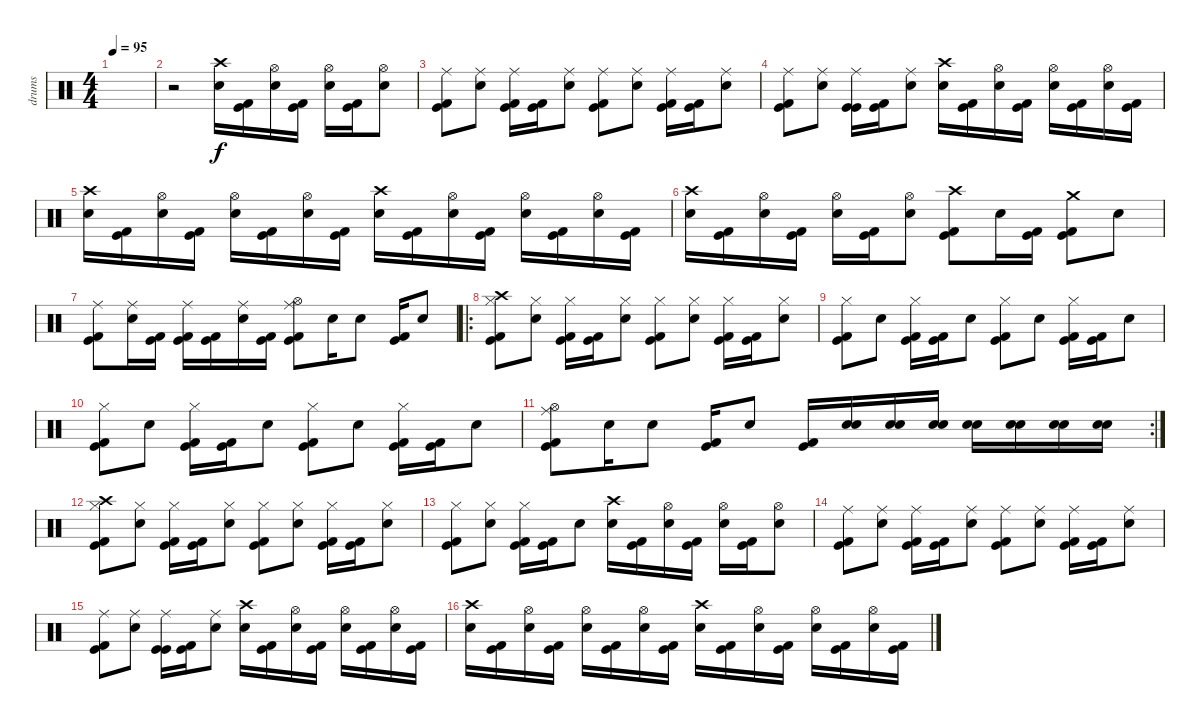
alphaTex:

\track ("drums" "drums") {instrument percussion}
\staff {score}
\articulation defaults
\ts (4 4)
\tempo 95
\clef neutral
\ks c
|
r.2 ("Crash high (hit)" "Electric Snare (hit)").16 ("Kick (hit)" "Kick (hit) 2").16 ("Hi-Hat (open)" "Electric Snare (hit)").16 ("Kick (hit)" "Kick (hit) 2").16 ("Hi-Hat (open)" "Electric Snare (hit)").16 ("Kick (hit)" "Kick (hit) 2").16 ("Hi-Hat (open)" "Electric Snare (hit)").8 |
("Ride (middle)" "Kick (hit)" "Kick (hit) 2").8 ("Ride (middle)" "Electric Snare (hit)").8 ("Ride (middle)" "Kick (hit) 2" "Kick (hit)").16 ("Kick (hit) 2" "Kick (hit)").16 ("Ride (middle)" "Electric Snare (hit)").8 ("Ride (middle)" "Kick (hit)" "Kick (hit) 2").8 ("Ride (middle)" "Electric Snare (hit)").8 ("Ride (middle)" "Kick (hit) 2" "Kick (hit)").16 ("Kick (hit) 2" "Kick (hit)").16 ("Ride (middle)" "Electric Snare (hit)").8 |
("Ride (middle)" "Kick (hit) 2" "Kick (hit)").8 ("Ride (middle)" "Electric Snare (hit)").8 ("Ride (middle)" "Kick (hit)" "Kick (hit)").16 ("Kick (hit)" "Kick (hit) 2").16 ("Ride (middle)" "Electric Snare (hit)").8 ("Crash high (hit)" "Electric Snare (hit)").16 ("Kick (hit)" "Kick (hit) 2").16 ("Hi-Hat (open)" "Electric Snare (hit)").16 ("Kick (hit)" "Kick (hit) 2").16 ("Hi-Hat (open)" "Electric Snare (hit)").16 ("Kick (hit)" "Kick (hit) 2").16 ("Hi-Hat (open)" "Electric Snare (hit)").16 ("Kick (hit)" "Kick (hit) 2").16 |
("Crash high (hit)" "Electric Snare (hit)").16 ("Kick (hit)" "Kick (hit) 2").16 ("Hi-Hat (open)" "Electric Snare (hit)").16 ("Kick (hit)" "Kick (hit) 2").16 ("Hi-Hat (open)" "Electric Snare (hit)").16 ("Kick (hit)" "Kick (hit) 2").16 ("Hi-Hat (open)" "Electric Snare (hit)").16 ("Kick (hit)" "Kick (hit) 2").16 ("Crash high (hit)" "Electric Snare (hit)").16 ("Kick (hit)" "Kick (hit) 2").16 ("Hi-Hat (open)" "Electric Snare (hit)").16 ("Kick (hit)" "Kick (hit) 2").16 ("Hi-Hat (open)" "Electric Snare (hit)").16 ("Kick (hit)" "Kick (hit) 2").16 ("Hi-Hat (open)" "Electric Snare (hit)").16 ("Kick (hit)" "Kick (hit) 2").16 |
("Crash high (hit)" "Electric Snare (hit)").16 ("Kick (hit)" "Kick (hit) 2").16 ("Hi-Hat (open)" "Electric Snare (hit)").16 ("Kick (hit)" "Kick (hit) 2").16 ("Hi-Hat (open)" "Electric Snare (hit)").16 ("Kick (hit)" "Kick (hit) 2").16 ("Hi-Hat (open)" "Electric Snare (hit)").8 ("Crash high (hit)" "Kick (hit) 2" "Kick (hit)").8 "Electric Snare (hit)".16 ("Kick (hit) 2" "Kick (hit)").16 ("Crash medium (hit)" "Kick (hit) 2" "Kick (hit)").8 "Electric Snare (hit)".8 |
("Ride (middle)" "Kick (hit)" "Kick (hit) 2").8 ("Ride (middle)" "Electric Snare (hit)").16 ("Kick (hit) 2" "Kick (hit)").16 ("Ride (middle)" "Kick (hit) 2" "Kick (hit)").16 ("Kick (hit) 2" "Kick (hit)").16 ("Ride (middle)" "Electric Snare (hit)").16 ("Kick (hit) 2" "Kick (hit)").16 ("Ride (middle)" "Hi-Hat (open)" "Kick (hit) 2" "Kick (hit)").8 "Electric Snare (hit)".16 "Electric Snare (hit)".8 ("Kick (hit)" "Kick (hit) 2").16 "Electric Snare (hit)".8 |
\ro
("Crash high (hit)" "Hi-Hat (closed)" "Kick (hit)" "Kick (hit) 2").8 ("Hi-Hat (closed)" "Electric Snare (hit)").8 ("Hi-Hat (closed)" "Kick (hit) 2" "Kick (hit)").16 ("Kick (hit) 2" "Kick (hit)").16 ("Hi-Hat (closed)" "Electric Snare (hit)").8 ("Hi-Hat (closed)" "Kick (hit)" "Kick (hit) 2").8 ("Hi-Hat (closed)" "Electric Snare (hit)").8 ("Hi-Hat (closed)" "Kick (hit) 2" "Kick (hit)").16 ("Kick (hit) 2" "Kick (hit)").16 ("Hi-Hat (closed)" "Electric Snare (hit)").8 |
("Hi-Hat (closed)" "Kick (hit)" "Kick (hit) 2").8 "Electric Snare (hit)".8 ("Hi-Hat (closed)" "Kick (hit) 2" "Kick (hit)").16 ("Kick (hit) 2" "Kick (hit)").16 "Electric Snare (hit)".8 ("Hi-Hat (closed)" "Kick (hit)" "Kick (hit) 2").8 "Electric Snare (hit)".8 ("Hi-Hat (closed)" "Kick (hit) 2" "Kick (hit)").16 ("Kick (hit) 2" "Kick (hit)").16 "Electric Snare (hit)".8 |
("Hi-Hat (closed)" "Kick (hit)" "Kick (hit) 2").8 "Electric Snare (hit)".8 ("Hi-Hat (closed)" "Kick (hit) 2" "Kick (hit)").16 ("Kick (hit) 2" "Kick (hit)").16 "Electric Snare (hit)".8 ("Hi-Hat (closed)" "Kick (hit)" "Kick (hit) 2").8 "Electric Snare (hit)".8 ("Hi-Hat (closed)" "Kick (hit) 2" "Kick (hit)").16 ("Kick (hit) 2" "Kick (hit)").16 "Electric Snare (hit)".8 |
\rc 2
("Ride (middle)" "Hi-Hat (open)" "Kick (hit) 2" "Kick (hit)").8 "Electric Snare (hit)".16 "Electric Snare (hit)".8 ("Kick (hit)" "Kick (hit) 2").16 "Electric Snare (hit)".8 ("Kick (hit) 2" "Kick (hit)").16 ("Electric Snare (hit)" "Electric Snare (hit)").16 ("Electric Snare (hit)" "Electric Snare (hit)").16 ("Electric Snare (hit)" "Electric Snare (hit)").16 ("Electric Snare (hit)" "Electric Snare (hit)").16 ("Electric Snare (hit)" "Electric Snare (hit)").16 ("Electric Snare (hit)" "Electric Snare (hit)").16 ("Electric Snare (hit)" "Electric Snare (hit)").16 |
("Crash high (hit)" "Hi-Hat (closed)" "Kick (hit)" "Kick (hit) 2").8 ("Hi-Hat (closed)" "Electric Snare (hit)").8 ("Hi-Hat (closed)" "Kick (hit) 2" "Kick (hit)").16 ("Kick (hit) 2" "Kick (hit)").16 ("Hi-Hat (closed)" "Electric Snare (hit)").8 ("Hi-Hat (closed)" "Kick (hit)" "Kick (hit) 2").8 ("Hi-Hat (closed)" "Electric Snare (hit)").8 ("Hi-Hat (closed)" "Kick (hit) 2" "Kick (hit)").16 ("Kick (hit) 2" "Kick (hit)").16 ("Hi-Hat (closed)" "Electric Snare (hit)").8 |
("Hi-Hat (closed)" "Kick (hit)" "Kick (hit) 2").8 ("Hi-Hat (closed)" "Electric Snare (hit)").8 ("Hi-Hat (closed)" "Kick (hit)" "Kick (hit) 2").16 ("Kick (hit) 2" "Kick (hit)").16 "Electric Snare (hit)".8 ("Crash high (hit)" "Electric Snare (hit)").16 ("Kick (hit)" "Kick (hit) 2").16 ("Hi-Hat (open)" "Electric Snare (hit)").16 ("Kick (hit)" "Kick (hit) 2").16 ("Hi-Hat (open)" "Electric Snare (hit)").16 ("Kick (hit)" "Kick (hit) 2").16 ("Hi-Hat (open)" "Electric Snare (hit)").8 |
("Ride (middle)" "Kick (hit)" "Kick (hit) 2").8 ("Ride (middle)" "Electric Snare (hit)").8 ("Ride (middle)" "Kick (hit) 2" "Kick (hit)").16 ("Kick (hit) 2" "Kick (hit)").16 ("Ride (middle)" "Electric Snare (hit)").8 ("Ride (middle)" "Kick (hit)" "Kick (hit) 2").8 ("Ride (middle)" "Electric Snare (hit)").8 ("Ride (middle)" "Kick (hit) 2" "Kick (hit)").16 ("Kick (hit) 2" "Kick (hit)").16 ("Ride (middle)" "Electric Snare (hit)").8 |
("Ride (middle)" "Kick (hit) 2" "Kick (hit)").8 ("Ride (middle)" "Electric Snare (hit)").8 ("Ride (middle)" "Kick (hit)" "Kick (hit)").16 ("Kick (hit)" "Kick (hit) 2").16 ("Ride (middle)" "Electric Snare (hit)").8 ("Crash high (hit)" "Electric Snare (hit)").16 ("Kick (hit)" "Kick (hit) 2").16 ("Hi-Hat (open)" "Electric Snare (hit)").16 ("Kick (hit)" "Kick (hit) 2").16 ("Hi-Hat (open)" "Electric Snare (hit)").16 ("Kick (hit)" "Kick (hit) 2").16 ("Hi-Hat (open)" "Electric Snare (hit)").16 ("Kick (hit)" "Kick (hit) 2").16 |
("Crash high (hit)" "Electric Snare (hit)").16 ("Kick (hit)" "Kick (hit) 2").16 ("Hi-Hat (open)" "Electric Snare (hit)").16 ("Kick (hit)" "Kick (hit) 2").16 ("Hi-Hat (open)" "Electric Snare (hit)").16 ("Kick (hit)" "Kick (hit) 2").16 ("Hi-Hat (open)" "Electric Snare (hit)").16 ("Kick (hit)" "Kick (hit) 2").16 ("Crash high (hit)" "Electric Snare (hit)").16 ("Kick (hit)" "Kick (hit) 2").16 ("Hi-Hat (open)" "Electric Snare (hit)").16 ("Kick (hit)" "Kick (hit) 2").16 ("Hi-Hat (open)" "Electric Snare (hit)").16 ("Kick (hit)" "Kick (hit) 2").16 ("Hi-Hat (open)" "Electric Snare (hit)").16 ("Kick (hit)" "Kick (hit) 2").16
